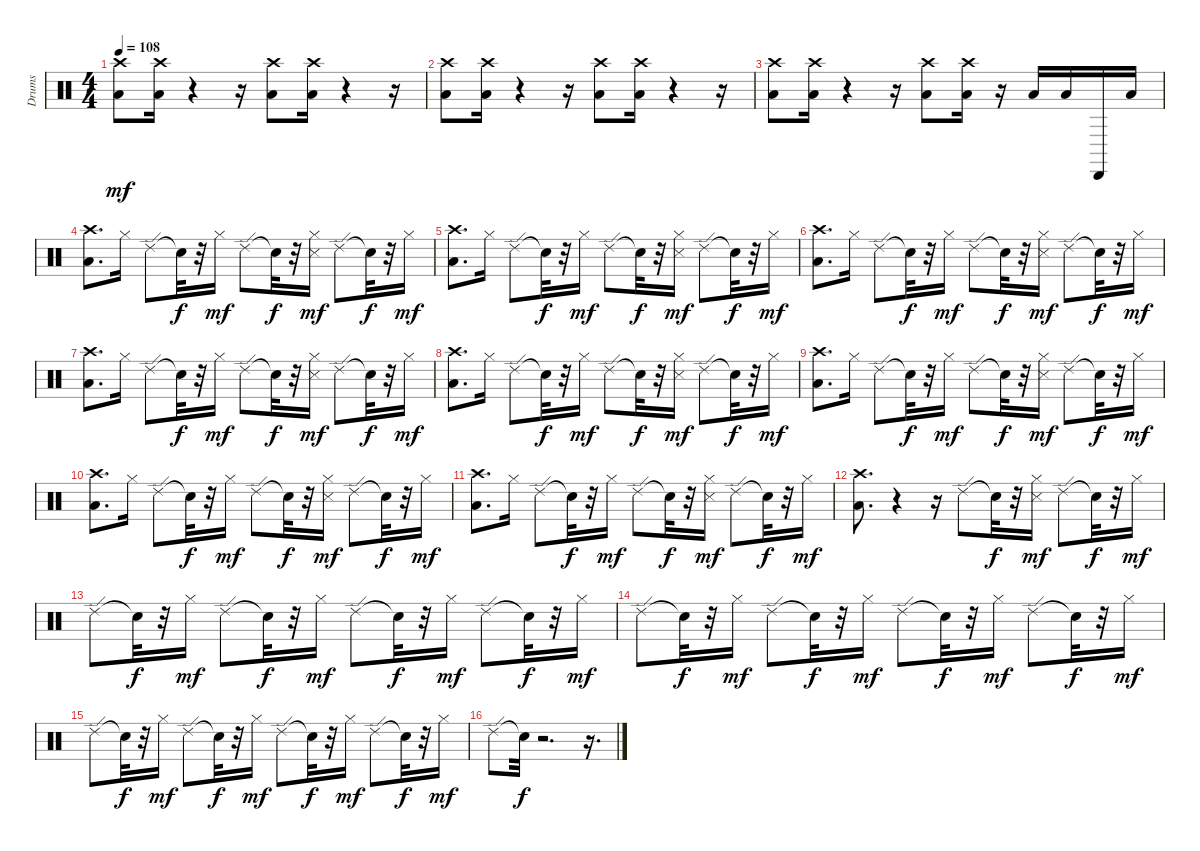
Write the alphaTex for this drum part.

\track ("Drums" "Drums") {instrument percussion}
\staff {score}
\articulation defaults
\ts (4 4)
\tempo 108
\clef neutral
\ks c
("Crash high (hit)" "Low Floor Tom (hit)").8{dy mf} ("Crash high (hit)" "Low Floor Tom (hit)").16 r.4 r.16 ("Crash high (hit)" "Low Floor Tom (hit)").8 ("Crash high (hit)" "Low Floor Tom (hit)").16 r.4 r.16 |
("Crash high (hit)" "Low Floor Tom (hit)").8 ("Crash high (hit)" "Low Floor Tom (hit)").16 r.4 r.16 ("Crash high (hit)" "Low Floor Tom (hit)").8 ("Crash high (hit)" "Low Floor Tom (hit)").16 r.4 r.16 |
("Crash high (hit)" "Low Floor Tom (hit)").8 ("Crash high (hit)" "Low Floor Tom (hit)").16 r.4 r.16 ("Crash high (hit)" "Low Floor Tom (hit)").8 ("Crash high (hit)" "Low Floor Tom (hit)").16 r.16 "Low Tom (hit)".16 "Low Tom (hit)".16 "Cabasa (hit)".16 "Low Floor Tom (hit)".16 |
("Crash high (hit)" "Low Floor Tom (hit)").8{d} "Hi-Hat (closed)".16 "Ride (edge) 2".8 "Snare (hit)"{t}.32{dy f} r.32 "Hi-Hat (closed)".16{dy mf} "Ride (edge) 2".8 "Snare (hit)"{t}.32{dy f} r.32 ("Metronome (hit)" "Hi-Hat (closed)").16{dy mf} "Ride (edge) 2".8 "Snare (hit)"{t}.32{dy f} r.32 "Hi-Hat (closed)".16{dy mf} |
("Crash high (hit)" "Low Floor Tom (hit)").8{d} "Hi-Hat (closed)".16 "Ride (edge) 2".8 "Snare (hit)"{t}.32{dy f} r.32 "Hi-Hat (closed)".16{dy mf} "Ride (edge) 2".8 "Snare (hit)"{t}.32{dy f} r.32 ("Metronome (hit)" "Hi-Hat (closed)").16{dy mf} "Ride (edge) 2".8 "Snare (hit)"{t}.32{dy f} r.32 "Hi-Hat (closed)".16{dy mf} |
("Crash high (hit)" "Low Floor Tom (hit)").8{d} "Hi-Hat (closed)".16 "Ride (edge) 2".8 "Snare (hit)"{t}.32{dy f} r.32 "Hi-Hat (closed)".16{dy mf} "Ride (edge) 2".8 "Snare (hit)"{t}.32{dy f} r.32 ("Metronome (hit)" "Hi-Hat (closed)").16{dy mf} "Ride (edge) 2".8 "Snare (hit)"{t}.32{dy f} r.32 "Hi-Hat (closed)".16{dy mf} |
("Crash high (hit)" "Low Floor Tom (hit)").8{d} "Hi-Hat (closed)".16 "Ride (edge) 2".8 "Snare (hit)"{t}.32{dy f} r.32 "Hi-Hat (closed)".16{dy mf} "Ride (edge) 2".8 "Snare (hit)"{t}.32{dy f} r.32 ("Metronome (hit)" "Hi-Hat (closed)").16{dy mf} "Ride (edge) 2".8 "Snare (hit)"{t}.32{dy f} r.32 "Hi-Hat (closed)".16{dy mf} |
("Crash high (hit)" "Low Floor Tom (hit)").8{d} "Hi-Hat (closed)".16 "Ride (edge) 2".8 "Snare (hit)"{t}.32{dy f} r.32 "Hi-Hat (closed)".16{dy mf} "Ride (edge) 2".8 "Snare (hit)"{t}.32{dy f} r.32 ("Metronome (hit)" "Hi-Hat (closed)").16{dy mf} "Ride (edge) 2".8 "Snare (hit)"{t}.32{dy f} r.32 "Hi-Hat (closed)".16{dy mf} |
("Crash high (hit)" "Low Floor Tom (hit)").8{d} "Hi-Hat (closed)".16 "Ride (edge) 2".8 "Snare (hit)"{t}.32{dy f} r.32 "Hi-Hat (closed)".16{dy mf} "Ride (edge) 2".8 "Snare (hit)"{t}.32{dy f} r.32 ("Hi-Hat (closed)" "Metronome (hit)").16{dy mf} "Ride (edge) 2".8 "Snare (hit)"{t}.32{dy f} r.32 "Hi-Hat (closed)".16{dy mf} |
("Crash high (hit)" "Low Floor Tom (hit)").8{d} "Hi-Hat (closed)".16 "Ride (edge) 2".8 "Snare (hit)"{t}.32{dy f} r.32 "Hi-Hat (closed)".16{dy mf} "Ride (edge) 2".8 "Snare (hit)"{t}.32{dy f} r.32 ("Metronome (hit)" "Hi-Hat (closed)").16{dy mf} "Ride (edge) 2".8 "Snare (hit)"{t}.32{dy f} r.32 "Hi-Hat (closed)".16{dy mf} |
("Crash high (hit)" "Low Floor Tom (hit)").8{d} "Hi-Hat (closed)".16 "Ride (edge) 2".8 "Snare (hit)"{t}.32{dy f} r.32 "Hi-Hat (closed)".16{dy mf} "Ride (edge) 2".8 "Snare (hit)"{t}.32{dy f} r.32 ("Hi-Hat (closed)" "Metronome (hit)").16{dy mf} "Ride (edge) 2".8 "Snare (hit)"{t}.32{dy f} r.32 "Hi-Hat (closed)".16{dy mf} |
("Crash high (hit)" "Low Floor Tom (hit)").8{d} r.4 r.16 "Ride (edge) 2".8 "Snare (hit)"{t}.32{dy f} r.32 ("Metronome (hit)" "Hi-Hat (closed)").16{dy mf} "Ride (edge) 2".8 "Snare (hit)"{t}.32{dy f} r.32 "Hi-Hat (closed)".16{dy mf} |
"Ride (edge) 2".8 "Snare (hit)"{t}.32{dy f} r.32 "Hi-Hat (closed)".16{dy mf} "Ride (edge) 2".8 "Snare (hit)"{t}.32{dy f} r.32 "Hi-Hat (closed)".16{dy mf} "Ride (edge) 2".8 "Snare (hit)"{t}.32{dy f} r.32 "Hi-Hat (closed)".16{dy mf} "Ride (edge) 2".8 "Snare (hit)"{t}.32{dy f} r.32 "Hi-Hat (closed)".16{dy mf} |
"Ride (edge) 2".8 "Snare (hit)"{t}.32{dy f} r.32 "Hi-Hat (closed)".16{dy mf} "Ride (edge) 2".8 "Snare (hit)"{t}.32{dy f} r.32 "Hi-Hat (closed)".16{dy mf} "Ride (edge) 2".8 "Snare (hit)"{t}.32{dy f} r.32 "Hi-Hat (closed)".16{dy mf} "Ride (edge) 2".8 "Snare (hit)"{t}.32{dy f} r.32 "Hi-Hat (closed)".16{dy mf} |
"Ride (edge) 2".8 "Snare (hit)"{t}.32{dy f} r.32 "Hi-Hat (closed)".16{dy mf} "Ride (edge) 2".8 "Snare (hit)"{t}.32{dy f} r.32 "Hi-Hat (closed)".16{dy mf} "Ride (edge) 2".8 "Snare (hit)"{t}.32{dy f} r.32 "Hi-Hat (closed)".16{dy mf} "Ride (edge) 2".8 "Snare (hit)"{t}.32{dy f} r.32 "Hi-Hat (closed)".16{dy mf} |
"Ride (edge) 2".8 "Snare (hit)"{t}.32{dy f} r.2{d} r.16{d}
